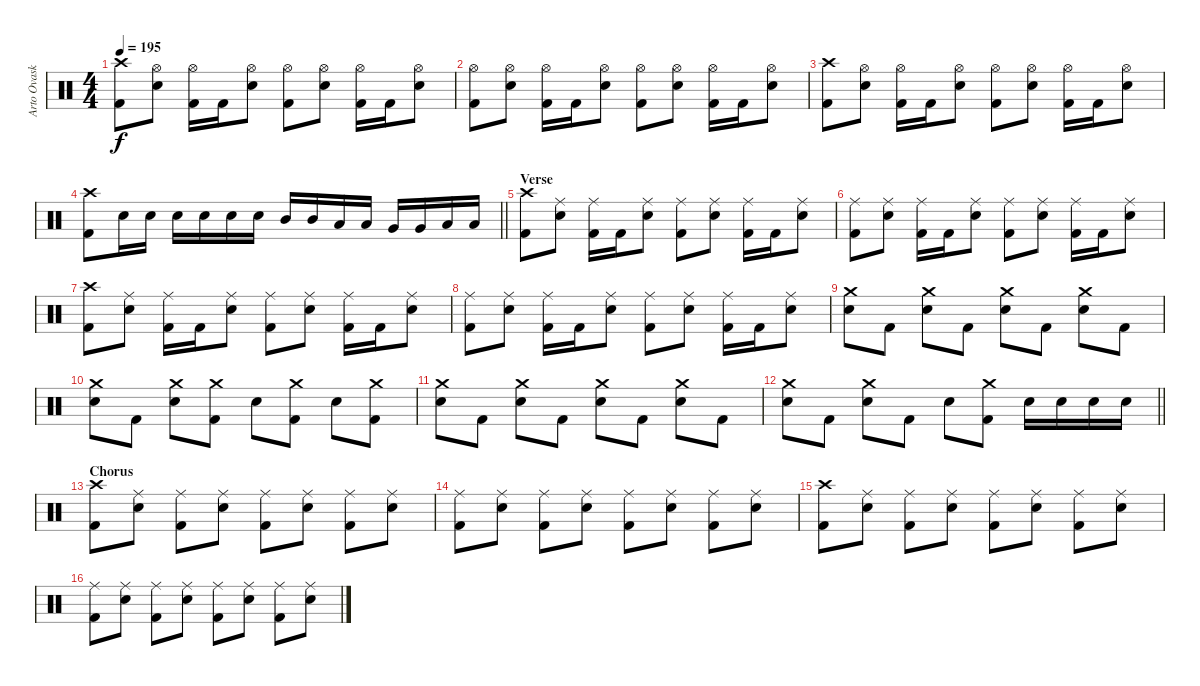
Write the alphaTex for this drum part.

\track ("Arto Ovaskainen" "Arto Ovask") {instrument percussion}
\staff {score}
\articulation defaults
\ts (4 4)
\tempo 195
\clef neutral
\ks c
("Crash high (hit)" "Kick (hit) 2").8{dy f} ("Hi-Hat (open)" "Electric Snare (hit)").8 ("Hi-Hat (open)" "Kick (hit) 2").16 "Kick (hit) 2".16 ("Hi-Hat (open)" "Electric Snare (hit)").8 ("Hi-Hat (open)" "Kick (hit) 2").8 ("Hi-Hat (open)" "Electric Snare (hit)").8 ("Hi-Hat (open)" "Kick (hit) 2").16 "Kick (hit) 2".16 ("Hi-Hat (open)" "Electric Snare (hit)").8 |
("Hi-Hat (open)" "Kick (hit) 2").8 ("Hi-Hat (open)" "Electric Snare (hit)").8 ("Hi-Hat (open)" "Kick (hit) 2").16 "Kick (hit) 2".16 ("Hi-Hat (open)" "Electric Snare (hit)").8 ("Hi-Hat (open)" "Kick (hit) 2").8 ("Hi-Hat (open)" "Electric Snare (hit)").8 ("Hi-Hat (open)" "Kick (hit) 2").16 "Kick (hit) 2".16 ("Hi-Hat (open)" "Electric Snare (hit)").8 |
("Crash high (hit)" "Kick (hit) 2").8 ("Hi-Hat (open)" "Electric Snare (hit)").8 ("Hi-Hat (open)" "Kick (hit) 2").16 "Kick (hit) 2".16 ("Hi-Hat (open)" "Electric Snare (hit)").8 ("Hi-Hat (open)" "Kick (hit) 2").8 ("Hi-Hat (open)" "Electric Snare (hit)").8 ("Hi-Hat (open)" "Kick (hit) 2").16 "Kick (hit) 2".16 ("Hi-Hat (open)" "Electric Snare (hit)").8 |
\barLineRight lightlight
("Crash high (hit)" "Kick (hit) 2").8 "Electric Snare (hit)".16 "Electric Snare (hit)".16 "Electric Snare (hit)".16 "Electric Snare (hit)".16 "Electric Snare (hit)".16 "Electric Snare (hit)".16 "Mid Tom (hit)".16 "Mid Tom (hit)".16 "Low Tom (hit)".16 "Low Tom (hit)".16 "Very Low Tom (hit)".16 "Very Low Tom (hit)".16 "Low Floor Tom (hit)".16 "Low Floor Tom (hit)".16 |
\section ("" "Verse")
("Crash high (hit)" "Kick (hit) 2").8 ("Ride (middle)" "Electric Snare (hit)").8 ("Ride (middle)" "Kick (hit) 2").16 "Kick (hit) 2".16 ("Ride (middle)" "Electric Snare (hit)").8 ("Ride (middle)" "Kick (hit) 2").8 ("Ride (middle)" "Electric Snare (hit)").8 ("Ride (middle)" "Kick (hit) 2").16 "Kick (hit) 2".16 ("Ride (middle)" "Electric Snare (hit)").8 |
("Ride (middle)" "Kick (hit) 2").8 ("Ride (middle)" "Electric Snare (hit)").8 ("Ride (middle)" "Kick (hit) 2").16 "Kick (hit) 2".16 ("Ride (middle)" "Electric Snare (hit)").8 ("Ride (middle)" "Kick (hit) 2").8 ("Ride (middle)" "Electric Snare (hit)").8 ("Ride (middle)" "Kick (hit) 2").16 "Kick (hit) 2".16 ("Ride (middle)" "Electric Snare (hit)").8 |
("Crash high (hit)" "Kick (hit) 2").8 ("Ride (middle)" "Electric Snare (hit)").8 ("Ride (middle)" "Kick (hit) 2").16 "Kick (hit) 2".16 ("Ride (middle)" "Electric Snare (hit)").8 ("Ride (middle)" "Kick (hit) 2").8 ("Ride (middle)" "Electric Snare (hit)").8 ("Ride (middle)" "Kick (hit) 2").16 "Kick (hit) 2".16 ("Ride (middle)" "Electric Snare (hit)").8 |
("Ride (middle)" "Kick (hit) 2").8 ("Ride (middle)" "Electric Snare (hit)").8 ("Ride (middle)" "Kick (hit) 2").16 "Kick (hit) 2".16 ("Ride (middle)" "Electric Snare (hit)").8 ("Ride (middle)" "Kick (hit) 2").8 ("Ride (middle)" "Electric Snare (hit)").8 ("Ride (middle)" "Kick (hit) 2").16 "Kick (hit) 2".16 ("Ride (middle)" "Electric Snare (hit)").8 |
("Crash medium (hit)" "Electric Snare (hit)").8 "Kick (hit) 2".8 ("Crash medium (hit)" "Electric Snare (hit)").8 "Kick (hit) 2".8 ("Crash medium (hit)" "Electric Snare (hit)").8 "Kick (hit) 2".8 ("Crash medium (hit)" "Electric Snare (hit)").8 "Kick (hit) 2".8 |
("Crash medium (hit)" "Electric Snare (hit)").8 "Kick (hit) 2".8 ("Crash medium (hit)" "Electric Snare (hit)").8 ("Crash medium (hit)" "Kick (hit) 2").8 "Electric Snare (hit)".8 ("Crash medium (hit)" "Kick (hit) 2").8 "Electric Snare (hit)".8 ("Crash medium (hit)" "Kick (hit) 2").8 |
("Crash medium (hit)" "Electric Snare (hit)").8 "Kick (hit) 2".8 ("Crash medium (hit)" "Electric Snare (hit)").8 "Kick (hit) 2".8 ("Crash medium (hit)" "Electric Snare (hit)").8 "Kick (hit) 2".8 ("Crash medium (hit)" "Electric Snare (hit)").8 "Kick (hit) 2".8 |
\barLineRight lightlight
("Crash medium (hit)" "Electric Snare (hit)").8 "Kick (hit) 2".8 ("Crash medium (hit)" "Electric Snare (hit)").8 "Kick (hit) 2".8 "Electric Snare (hit)".8 ("Crash medium (hit)" "Kick (hit) 2").8 "Electric Snare (hit)".16 "Electric Snare (hit)".16 "Electric Snare (hit)".16 "Electric Snare (hit)".16 |
\section ("" "Chorus")
("Crash high (hit)" "Kick (hit) 2").8 ("Ride (middle)" "Electric Snare (hit)").8 ("Ride (middle)" "Kick (hit) 2").8 ("Ride (middle)" "Electric Snare (hit)").8 ("Ride (middle)" "Kick (hit) 2").8 ("Ride (middle)" "Electric Snare (hit)").8 ("Ride (middle)" "Kick (hit) 2").8 ("Ride (middle)" "Electric Snare (hit)").8 |
("Ride (middle)" "Kick (hit) 2").8 ("Ride (middle)" "Electric Snare (hit)").8 ("Ride (middle)" "Kick (hit) 2").8 ("Ride (middle)" "Electric Snare (hit)").8 ("Ride (middle)" "Kick (hit) 2").8 ("Ride (middle)" "Electric Snare (hit)").8 ("Ride (middle)" "Kick (hit) 2").8 ("Ride (middle)" "Electric Snare (hit)").8 |
("Crash high (hit)" "Kick (hit) 2").8 ("Ride (middle)" "Electric Snare (hit)").8 ("Ride (middle)" "Kick (hit) 2").8 ("Ride (middle)" "Electric Snare (hit)").8 ("Ride (middle)" "Kick (hit) 2").8 ("Ride (middle)" "Electric Snare (hit)").8 ("Ride (middle)" "Kick (hit) 2").8 ("Ride (middle)" "Electric Snare (hit)").8 |
("Ride (middle)" "Kick (hit) 2").8 ("Ride (middle)" "Electric Snare (hit)").8 ("Ride (middle)" "Kick (hit) 2").8 ("Ride (middle)" "Electric Snare (hit)").8 ("Ride (middle)" "Kick (hit) 2").8 ("Ride (middle)" "Electric Snare (hit)").8 ("Ride (middle)" "Kick (hit) 2").8 ("Ride (middle)" "Electric Snare (hit)").8
